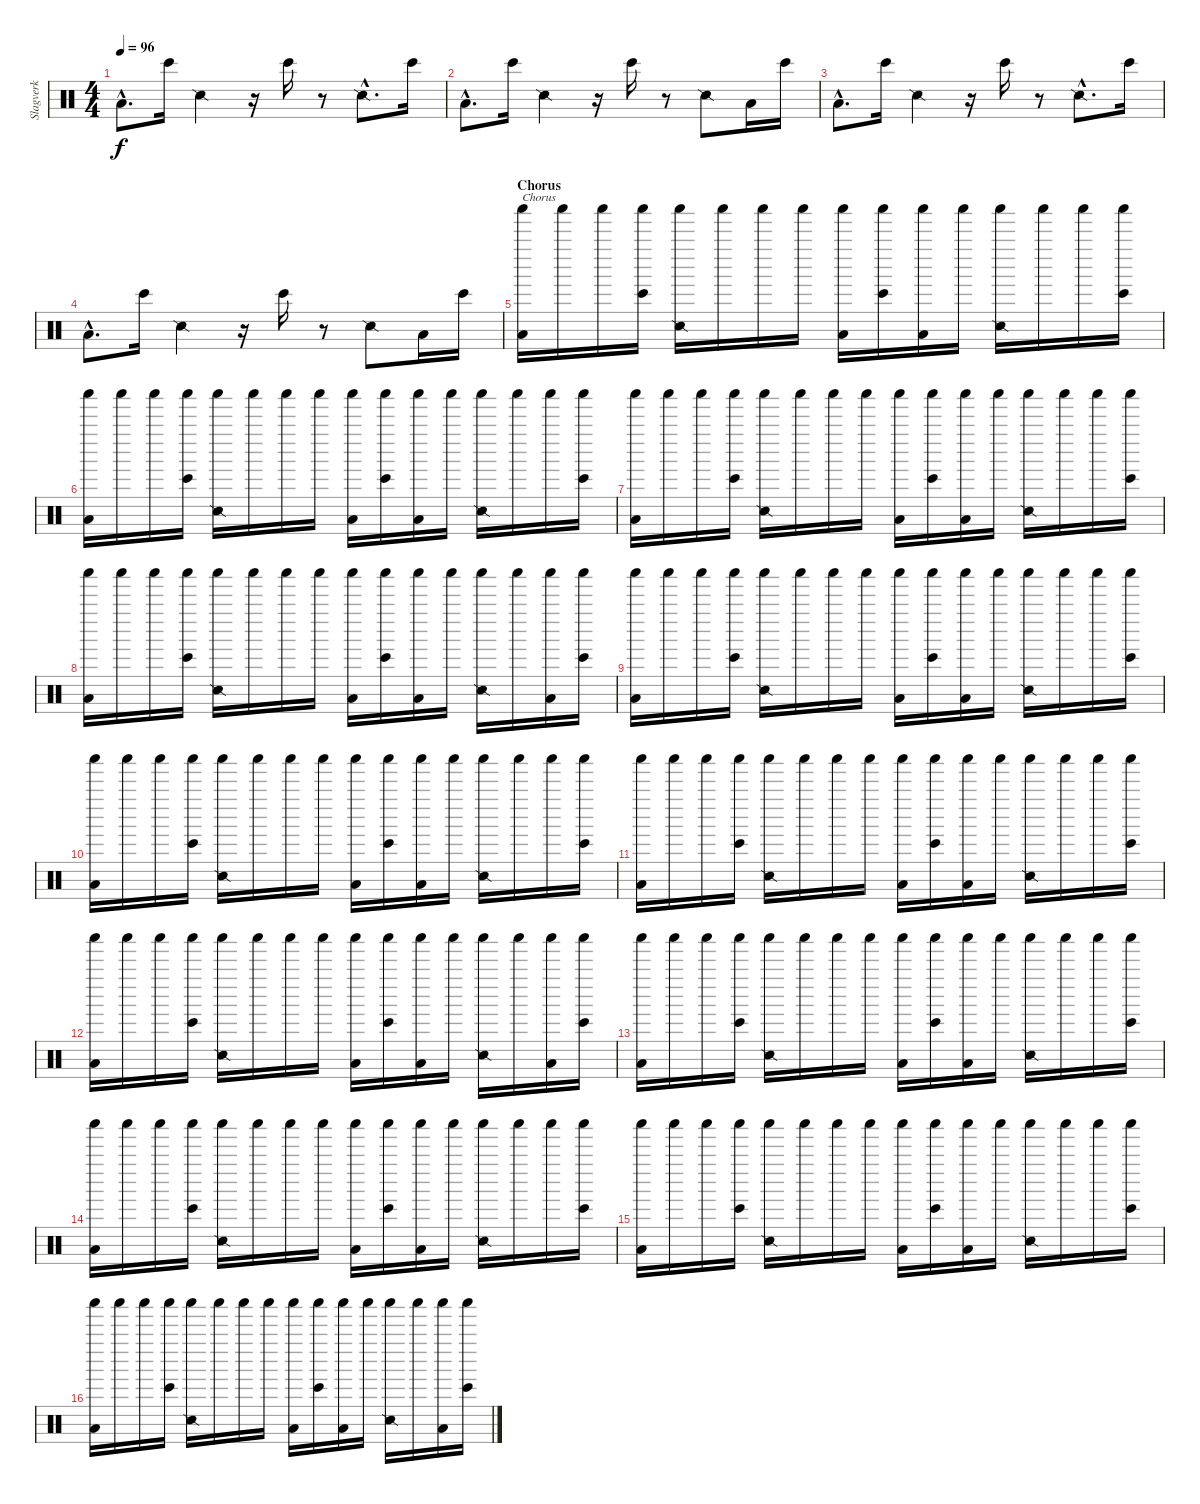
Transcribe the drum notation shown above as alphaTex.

\track ("Slagverk" "Slagverk") {instrument percussion}
\staff {score}
\articulation defaults
\ts (4 4)
\tempo 96
\clef neutral
\ks c "Low Floor Tom (hit)"{hac}.8{d dy f} "Bongo High (hit)".16 "Snare (side stick) 2".4
r.16 "Bongo High (hit)".16 r.8 "Snare (side stick) 2"{hac}.8{d} "Bongo High (hit)".16 |
"Low Floor Tom (hit)"{hac}.8{d} "Bongo High (hit)".16 "Snare (side stick) 2".4 r.16 "Bongo High (hit)".16 r.8 "Snare (side stick) 2".8 "Low Floor Tom (hit)".16 "Bongo High (hit)".16 |
"Low Floor Tom (hit)"{hac}.8{d} "Bongo High (hit)".16 "Snare (side stick) 2".4 r.16 "Bongo High (hit)".16 r.8 "Snare (side stick) 2"{hac}.8{d} "Bongo High (hit)".16 |
"Low Floor Tom (hit)"{hac}.8{d} "Bongo High (hit)".16 "Snare (side stick) 2".4 r.16 "Bongo High (hit)".16 r.8 "Snare (side stick) 2".8 "Low Floor Tom (hit)".16 "Bongo High (hit)".16 |
\section ("" "Chorus")
("Shaker (hit)" "Low Floor Tom (hit)").16{txt "Chorus"} "Shaker (hit)".16 "Shaker (hit)".16 ("Shaker (hit)" "Bongo High (hit)").16 ("Shaker (hit)" "Snare (side stick) 2").16 "Shaker (hit)".16 "Shaker (hit)".16 "Shaker (hit)".16 ("Shaker (hit)" "Low Floor Tom (hit)").16 ("Shaker (hit)" "Bongo High (hit)").16 ("Shaker (hit)" "Low Floor Tom (hit)").16 "Shaker (hit)".16 ("Shaker (hit)" "Snare (side stick) 2").16 "Shaker (hit)".16 "Shaker (hit)".16 ("Shaker (hit)" "Bongo High (hit)").16 |
("Shaker (hit)" "Low Floor Tom (hit)").16 "Shaker (hit)".16 "Shaker (hit)".16 ("Shaker (hit)" "Bongo High (hit)").16 ("Shaker (hit)" "Snare (side stick) 2").16 "Shaker (hit)".16 "Shaker (hit)".16 "Shaker (hit)".16 ("Shaker (hit)" "Low Floor Tom (hit)").16 ("Shaker (hit)" "Bongo High (hit)").16 ("Shaker (hit)" "Low Floor Tom (hit)").16 "Shaker (hit)".16 ("Shaker (hit)" "Snare (side stick) 2").16 "Shaker (hit)".16 "Shaker (hit)".16 ("Shaker (hit)" "Bongo High (hit)").16 |
("Shaker (hit)" "Low Floor Tom (hit)").16 "Shaker (hit)".16 "Shaker (hit)".16 ("Shaker (hit)" "Bongo High (hit)").16 ("Shaker (hit)" "Snare (side stick) 2").16 "Shaker (hit)".16 "Shaker (hit)".16 "Shaker (hit)".16 ("Shaker (hit)" "Low Floor Tom (hit)").16 ("Shaker (hit)" "Bongo High (hit)").16 ("Shaker (hit)" "Low Floor Tom (hit)").16 "Shaker (hit)".16 ("Shaker (hit)" "Snare (side stick) 2").16 "Shaker (hit)".16 "Shaker (hit)".16 ("Shaker (hit)" "Bongo High (hit)").16 |
("Shaker (hit)" "Low Floor Tom (hit)").16 "Shaker (hit)".16 "Shaker (hit)".16 ("Shaker (hit)" "Bongo High (hit)").16 ("Shaker (hit)" "Snare (side stick) 2").16 "Shaker (hit)".16 "Shaker (hit)".16 "Shaker (hit)".16 ("Shaker (hit)" "Low Floor Tom (hit)").16 ("Shaker (hit)" "Bongo High (hit)").16 ("Shaker (hit)" "Low Floor Tom (hit)").16 "Shaker (hit)".16 ("Shaker (hit)" "Snare (side stick) 2").16 "Shaker (hit)".16 ("Shaker (hit)" "Low Floor Tom (hit)").16 ("Shaker (hit)" "Bongo High (hit)").16 |
("Shaker (hit)" "Low Floor Tom (hit)").16 "Shaker (hit)".16 "Shaker (hit)".16 ("Shaker (hit)" "Bongo High (hit)").16 ("Shaker (hit)" "Snare (side stick) 2").16 "Shaker (hit)".16 "Shaker (hit)".16 "Shaker (hit)".16 ("Shaker (hit)" "Low Floor Tom (hit)").16 ("Shaker (hit)" "Bongo High (hit)").16 ("Shaker (hit)" "Low Floor Tom (hit)").16 "Shaker (hit)".16 ("Shaker (hit)" "Snare (side stick) 2").16 "Shaker (hit)".16 "Shaker (hit)".16 ("Shaker (hit)" "Bongo High (hit)").16 |
("Shaker (hit)" "Low Floor Tom (hit)").16 "Shaker (hit)".16 "Shaker (hit)".16 ("Shaker (hit)" "Bongo High (hit)").16 ("Shaker (hit)" "Snare (side stick) 2").16 "Shaker (hit)".16 "Shaker (hit)".16 "Shaker (hit)".16 ("Shaker (hit)" "Low Floor Tom (hit)").16 ("Shaker (hit)" "Bongo High (hit)").16 ("Shaker (hit)" "Low Floor Tom (hit)").16 "Shaker (hit)".16 ("Shaker (hit)" "Snare (side stick) 2").16 "Shaker (hit)".16 "Shaker (hit)".16 ("Shaker (hit)" "Bongo High (hit)").16 |
("Shaker (hit)" "Low Floor Tom (hit)").16 "Shaker (hit)".16 "Shaker (hit)".16 ("Shaker (hit)" "Bongo High (hit)").16 ("Shaker (hit)" "Snare (side stick) 2").16 "Shaker (hit)".16 "Shaker (hit)".16 "Shaker (hit)".16 ("Shaker (hit)" "Low Floor Tom (hit)").16 ("Shaker (hit)" "Bongo High (hit)").16 ("Shaker (hit)" "Low Floor Tom (hit)").16 "Shaker (hit)".16 ("Shaker (hit)" "Snare (side stick) 2").16 "Shaker (hit)".16 "Shaker (hit)".16 ("Shaker (hit)" "Bongo High (hit)").16 |
("Shaker (hit)" "Low Floor Tom (hit)").16 "Shaker (hit)".16 "Shaker (hit)".16 ("Shaker (hit)" "Bongo High (hit)").16 ("Shaker (hit)" "Snare (side stick) 2").16 "Shaker (hit)".16 "Shaker (hit)".16 "Shaker (hit)".16 ("Shaker (hit)" "Low Floor Tom (hit)").16 ("Shaker (hit)" "Bongo High (hit)").16 ("Shaker (hit)" "Low Floor Tom (hit)").16 "Shaker (hit)".16 ("Shaker (hit)" "Snare (side stick) 2").16 "Shaker (hit)".16 ("Shaker (hit)" "Low Floor Tom (hit)").16 ("Shaker (hit)" "Bongo High (hit)").16 |
("Shaker (hit)" "Low Floor Tom (hit)").16 "Shaker (hit)".16 "Shaker (hit)".16 ("Shaker (hit)" "Bongo High (hit)").16 ("Shaker (hit)" "Snare (side stick) 2").16 "Shaker (hit)".16 "Shaker (hit)".16 "Shaker (hit)".16 ("Shaker (hit)" "Low Floor Tom (hit)").16 ("Shaker (hit)" "Bongo High (hit)").16 ("Shaker (hit)" "Low Floor Tom (hit)").16 "Shaker (hit)".16 ("Shaker (hit)" "Snare (side stick) 2").16 "Shaker (hit)".16 "Shaker (hit)".16 ("Shaker (hit)" "Bongo High (hit)").16 |
("Shaker (hit)" "Low Floor Tom (hit)").16 "Shaker (hit)".16 "Shaker (hit)".16 ("Shaker (hit)" "Bongo High (hit)").16 ("Shaker (hit)" "Snare (side stick) 2").16 "Shaker (hit)".16 "Shaker (hit)".16 "Shaker (hit)".16 ("Shaker (hit)" "Low Floor Tom (hit)").16 ("Shaker (hit)" "Bongo High (hit)").16 ("Shaker (hit)" "Low Floor Tom (hit)").16 "Shaker (hit)".16 ("Shaker (hit)" "Snare (side stick) 2").16 "Shaker (hit)".16 "Shaker (hit)".16 ("Shaker (hit)" "Bongo High (hit)").16 |
("Shaker (hit)" "Low Floor Tom (hit)").16 "Shaker (hit)".16 "Shaker (hit)".16 ("Shaker (hit)" "Bongo High (hit)").16 ("Shaker (hit)" "Snare (side stick) 2").16 "Shaker (hit)".16 "Shaker (hit)".16 "Shaker (hit)".16 ("Shaker (hit)" "Low Floor Tom (hit)").16 ("Shaker (hit)" "Bongo High (hit)").16 ("Shaker (hit)" "Low Floor Tom (hit)").16 "Shaker (hit)".16 ("Shaker (hit)" "Snare (side stick) 2").16 "Shaker (hit)".16 "Shaker (hit)".16 ("Shaker (hit)" "Bongo High (hit)").16 |
("Shaker (hit)" "Low Floor Tom (hit)").16 "Shaker (hit)".16 "Shaker (hit)".16 ("Shaker (hit)" "Bongo High (hit)").16 ("Shaker (hit)" "Snare (side stick) 2").16 "Shaker (hit)".16 "Shaker (hit)".16 "Shaker (hit)".16 ("Shaker (hit)" "Low Floor Tom (hit)").16 ("Shaker (hit)" "Bongo High (hit)").16 ("Shaker (hit)" "Low Floor Tom (hit)").16 "Shaker (hit)".16 ("Shaker (hit)" "Snare (side stick) 2").16 "Shaker (hit)".16 ("Shaker (hit)" "Low Floor Tom (hit)").16 ("Shaker (hit)" "Bongo High (hit)").16
